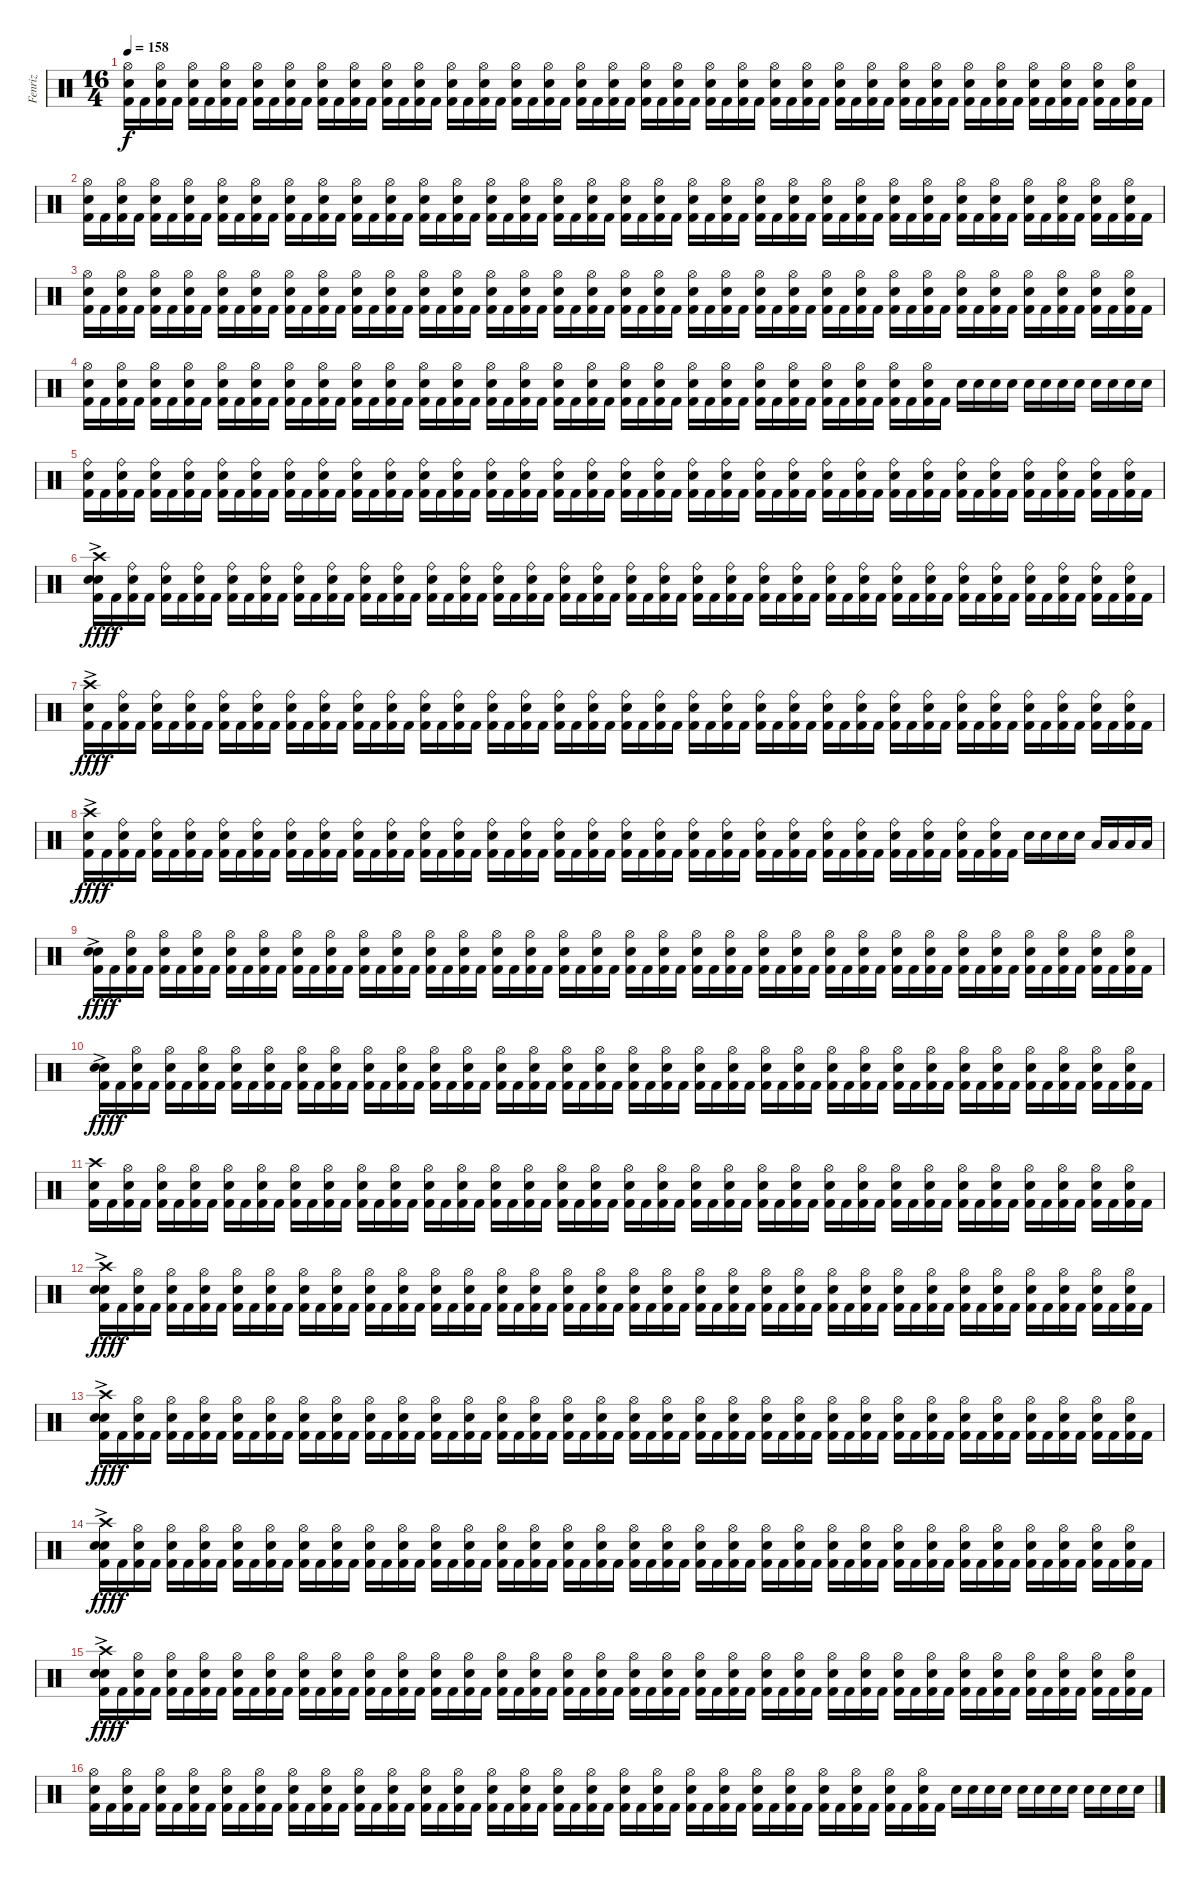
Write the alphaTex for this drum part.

\track ("Fenriz" "Fenriz") {instrument percussion}
\staff {score}
\articulation defaults
\ts (16 4)
\tempo 158
\clef neutral
\ks c
("Hi-Hat (open)" "Snare (hit) 2" "Kick (hit) 2").16{dy f} "Kick (hit) 2".16 ("Hi-Hat (open)" "Snare (hit) 2" "Kick (hit) 2").16 "Kick (hit) 2".16 ("Hi-Hat (open)" "Snare (hit) 2" "Kick (hit) 2").16 "Kick (hit) 2".16 ("Hi-Hat (open)" "Snare (hit) 2" "Kick (hit) 2").16 "Kick (hit) 2".16 ("Hi-Hat (open)" "Snare (hit) 2" "Kick (hit) 2").16 "Kick (hit) 2".16 ("Hi-Hat (open)" "Snare (hit) 2" "Kick (hit) 2").16 "Kick (hit) 2".16 ("Hi-Hat (open)" "Snare (hit) 2" "Kick (hit) 2").16 "Kick (hit) 2".16 ("Hi-Hat (open)" "Snare (hit) 2" "Kick (hit) 2").16 "Kick (hit) 2".16 ("Hi-Hat (open)" "Snare (hit) 2" "Kick (hit) 2").16 "Kick (hit) 2".16 ("Hi-Hat (open)" "Snare (hit) 2" "Kick (hit) 2").16 "Kick (hit) 2".16 ("Hi-Hat (open)" "Snare (hit) 2" "Kick (hit) 2").16 "Kick (hit) 2".16 ("Hi-Hat (open)" "Snare (hit) 2" "Kick (hit) 2").16 "Kick (hit) 2".16 ("Hi-Hat (open)" "Snare (hit) 2" "Kick (hit) 2").16 "Kick (hit) 2".16 ("Hi-Hat (open)" "Snare (hit) 2" "Kick (hit) 2").16 "Kick (hit) 2".16 ("Hi-Hat (open)" "Snare (hit) 2" "Kick (hit) 2").16 "Kick (hit) 2".16 ("Hi-Hat (open)" "Snare (hit) 2" "Kick (hit) 2").16 "Kick (hit) 2".16 ("Hi-Hat (open)" "Snare (hit) 2" "Kick (hit) 2").16 "Kick (hit) 2".16 ("Hi-Hat (open)" "Snare (hit) 2" "Kick (hit) 2").16 "Kick (hit) 2".16 ("Hi-Hat (open)" "Snare (hit) 2" "Kick (hit) 2").16 "Kick (hit) 2".16 ("Hi-Hat (open)" "Snare (hit) 2" "Kick (hit) 2").16 "Kick (hit) 2".16 ("Hi-Hat (open)" "Snare (hit) 2" "Kick (hit) 2").16 "Kick (hit) 2".16 ("Hi-Hat (open)" "Snare (hit) 2" "Kick (hit) 2").16 "Kick (hit) 2".16 ("Hi-Hat (open)" "Snare (hit) 2" "Kick (hit) 2").16 "Kick (hit) 2".16 ("Hi-Hat (open)" "Snare (hit) 2" "Kick (hit) 2").16 "Kick (hit) 2".16 ("Hi-Hat (open)" "Snare (hit) 2" "Kick (hit) 2").16 "Kick (hit) 2".16 ("Hi-Hat (open)" "Snare (hit) 2" "Kick (hit) 2").16 "Kick (hit) 2".16 ("Hi-Hat (open)" "Snare (hit) 2" "Kick (hit) 2").16 "Kick (hit) 2".16 ("Hi-Hat (open)" "Snare (hit) 2" "Kick (hit) 2").16 "Kick (hit) 2".16 ("Hi-Hat (open)" "Snare (hit) 2" "Kick (hit) 2").16 "Kick (hit) 2".16 ("Hi-Hat (open)" "Snare (hit) 2" "Kick (hit) 2").16 "Kick (hit) 2".16 ("Hi-Hat (open)" "Snare (hit) 2" "Kick (hit) 2").16 "Kick (hit) 2".16 ("Hi-Hat (open)" "Snare (hit) 2" "Kick (hit) 2").16 "Kick (hit) 2".16 |
("Hi-Hat (open)" "Snare (hit) 2" "Kick (hit) 2").16 "Kick (hit) 2".16 ("Hi-Hat (open)" "Snare (hit) 2" "Kick (hit) 2").16 "Kick (hit) 2".16 ("Hi-Hat (open)" "Snare (hit) 2" "Kick (hit) 2").16 "Kick (hit) 2".16 ("Hi-Hat (open)" "Snare (hit) 2" "Kick (hit) 2").16 "Kick (hit) 2".16 ("Hi-Hat (open)" "Snare (hit) 2" "Kick (hit) 2").16 "Kick (hit) 2".16 ("Hi-Hat (open)" "Snare (hit) 2" "Kick (hit) 2").16 "Kick (hit) 2".16 ("Hi-Hat (open)" "Snare (hit) 2" "Kick (hit) 2").16 "Kick (hit) 2".16 ("Hi-Hat (open)" "Snare (hit) 2" "Kick (hit) 2").16 "Kick (hit) 2".16 ("Hi-Hat (open)" "Snare (hit) 2" "Kick (hit) 2").16 "Kick (hit) 2".16 ("Hi-Hat (open)" "Snare (hit) 2" "Kick (hit) 2").16 "Kick (hit) 2".16 ("Hi-Hat (open)" "Snare (hit) 2" "Kick (hit) 2").16 "Kick (hit) 2".16 ("Hi-Hat (open)" "Snare (hit) 2" "Kick (hit) 2").16 "Kick (hit) 2".16 ("Hi-Hat (open)" "Snare (hit) 2" "Kick (hit) 2").16 "Kick (hit) 2".16 ("Hi-Hat (open)" "Snare (hit) 2" "Kick (hit) 2").16 "Kick (hit) 2".16 ("Hi-Hat (open)" "Snare (hit) 2" "Kick (hit) 2").16 "Kick (hit) 2".16 ("Hi-Hat (open)" "Snare (hit) 2" "Kick (hit) 2").16 "Kick (hit) 2".16 ("Hi-Hat (open)" "Snare (hit) 2" "Kick (hit) 2").16 "Kick (hit) 2".16 ("Hi-Hat (open)" "Snare (hit) 2" "Kick (hit) 2").16 "Kick (hit) 2".16 ("Hi-Hat (open)" "Snare (hit) 2" "Kick (hit) 2").16 "Kick (hit) 2".16 ("Hi-Hat (open)" "Snare (hit) 2" "Kick (hit) 2").16 "Kick (hit) 2".16 ("Hi-Hat (open)" "Snare (hit) 2" "Kick (hit) 2").16 "Kick (hit) 2".16 ("Hi-Hat (open)" "Snare (hit) 2" "Kick (hit) 2").16 "Kick (hit) 2".16 ("Hi-Hat (open)" "Snare (hit) 2" "Kick (hit) 2").16 "Kick (hit) 2".16 ("Hi-Hat (open)" "Snare (hit) 2" "Kick (hit) 2").16 "Kick (hit) 2".16 ("Hi-Hat (open)" "Snare (hit) 2" "Kick (hit) 2").16 "Kick (hit) 2".16 ("Hi-Hat (open)" "Snare (hit) 2" "Kick (hit) 2").16 "Kick (hit) 2".16 ("Hi-Hat (open)" "Snare (hit) 2" "Kick (hit) 2").16 "Kick (hit) 2".16 ("Hi-Hat (open)" "Snare (hit) 2" "Kick (hit) 2").16 "Kick (hit) 2".16 ("Hi-Hat (open)" "Snare (hit) 2" "Kick (hit) 2").16 "Kick (hit) 2".16 ("Hi-Hat (open)" "Snare (hit) 2" "Kick (hit) 2").16 "Kick (hit) 2".16 ("Hi-Hat (open)" "Snare (hit) 2" "Kick (hit) 2").16 "Kick (hit) 2".16 ("Hi-Hat (open)" "Snare (hit) 2" "Kick (hit) 2").16 "Kick (hit) 2".16 |
("Hi-Hat (open)" "Snare (hit) 2" "Kick (hit) 2").16 "Kick (hit) 2".16 ("Hi-Hat (open)" "Snare (hit) 2" "Kick (hit) 2").16 "Kick (hit) 2".16 ("Hi-Hat (open)" "Snare (hit) 2" "Kick (hit) 2").16 "Kick (hit) 2".16 ("Hi-Hat (open)" "Snare (hit) 2" "Kick (hit) 2").16 "Kick (hit) 2".16 ("Hi-Hat (open)" "Snare (hit) 2" "Kick (hit) 2").16 "Kick (hit) 2".16 ("Hi-Hat (open)" "Snare (hit) 2" "Kick (hit) 2").16 "Kick (hit) 2".16 ("Hi-Hat (open)" "Snare (hit) 2" "Kick (hit) 2").16 "Kick (hit) 2".16 ("Hi-Hat (open)" "Snare (hit) 2" "Kick (hit) 2").16 "Kick (hit) 2".16 ("Hi-Hat (open)" "Snare (hit) 2" "Kick (hit) 2").16 "Kick (hit) 2".16 ("Hi-Hat (open)" "Snare (hit) 2" "Kick (hit) 2").16 "Kick (hit) 2".16 ("Hi-Hat (open)" "Snare (hit) 2" "Kick (hit) 2").16 "Kick (hit) 2".16 ("Hi-Hat (open)" "Snare (hit) 2" "Kick (hit) 2").16 "Kick (hit) 2".16 ("Hi-Hat (open)" "Snare (hit) 2" "Kick (hit) 2").16 "Kick (hit) 2".16 ("Hi-Hat (open)" "Snare (hit) 2" "Kick (hit) 2").16 "Kick (hit) 2".16 ("Hi-Hat (open)" "Snare (hit) 2" "Kick (hit) 2").16 "Kick (hit) 2".16 ("Hi-Hat (open)" "Snare (hit) 2" "Kick (hit) 2").16 "Kick (hit) 2".16 ("Hi-Hat (open)" "Snare (hit) 2" "Kick (hit) 2").16 "Kick (hit) 2".16 ("Hi-Hat (open)" "Snare (hit) 2" "Kick (hit) 2").16 "Kick (hit) 2".16 ("Hi-Hat (open)" "Snare (hit) 2" "Kick (hit) 2").16 "Kick (hit) 2".16 ("Hi-Hat (open)" "Snare (hit) 2" "Kick (hit) 2").16 "Kick (hit) 2".16 ("Hi-Hat (open)" "Snare (hit) 2" "Kick (hit) 2").16 "Kick (hit) 2".16 ("Hi-Hat (open)" "Snare (hit) 2" "Kick (hit) 2").16 "Kick (hit) 2".16 ("Hi-Hat (open)" "Snare (hit) 2" "Kick (hit) 2").16 "Kick (hit) 2".16 ("Hi-Hat (open)" "Snare (hit) 2" "Kick (hit) 2").16 "Kick (hit) 2".16 ("Hi-Hat (open)" "Snare (hit) 2" "Kick (hit) 2").16 "Kick (hit) 2".16 ("Hi-Hat (open)" "Snare (hit) 2" "Kick (hit) 2").16 "Kick (hit) 2".16 ("Hi-Hat (open)" "Snare (hit) 2" "Kick (hit) 2").16 "Kick (hit) 2".16 ("Hi-Hat (open)" "Snare (hit) 2" "Kick (hit) 2").16 "Kick (hit) 2".16 ("Hi-Hat (open)" "Snare (hit) 2" "Kick (hit) 2").16 "Kick (hit) 2".16 ("Hi-Hat (open)" "Snare (hit) 2" "Kick (hit) 2").16 "Kick (hit) 2".16 ("Hi-Hat (open)" "Snare (hit) 2" "Kick (hit) 2").16 "Kick (hit) 2".16 ("Hi-Hat (open)" "Snare (hit) 2" "Kick (hit) 2").16 "Kick (hit) 2".16 |
("Hi-Hat (open)" "Snare (hit) 2" "Kick (hit) 2").16 "Kick (hit) 2".16 ("Hi-Hat (open)" "Snare (hit) 2" "Kick (hit) 2").16 "Kick (hit) 2".16 ("Hi-Hat (open)" "Snare (hit) 2" "Kick (hit) 2").16 "Kick (hit) 2".16 ("Hi-Hat (open)" "Snare (hit) 2" "Kick (hit) 2").16 "Kick (hit) 2".16 ("Hi-Hat (open)" "Snare (hit) 2" "Kick (hit) 2").16 "Kick (hit) 2".16 ("Hi-Hat (open)" "Snare (hit) 2" "Kick (hit) 2").16 "Kick (hit) 2".16 ("Hi-Hat (open)" "Snare (hit) 2" "Kick (hit) 2").16 "Kick (hit) 2".16 ("Hi-Hat (open)" "Snare (hit) 2" "Kick (hit) 2").16 "Kick (hit) 2".16 ("Hi-Hat (open)" "Snare (hit) 2" "Kick (hit) 2").16 "Kick (hit) 2".16 ("Hi-Hat (open)" "Snare (hit) 2" "Kick (hit) 2").16 "Kick (hit) 2".16 ("Hi-Hat (open)" "Snare (hit) 2" "Kick (hit) 2").16 "Kick (hit) 2".16 ("Hi-Hat (open)" "Snare (hit) 2" "Kick (hit) 2").16 "Kick (hit) 2".16 ("Hi-Hat (open)" "Snare (hit) 2" "Kick (hit) 2").16 "Kick (hit) 2".16 ("Hi-Hat (open)" "Snare (hit) 2" "Kick (hit) 2").16 "Kick (hit) 2".16 ("Hi-Hat (open)" "Snare (hit) 2" "Kick (hit) 2").16 "Kick (hit) 2".16 ("Hi-Hat (open)" "Snare (hit) 2" "Kick (hit) 2").16 "Kick (hit) 2".16 ("Hi-Hat (open)" "Snare (hit) 2" "Kick (hit) 2").16 "Kick (hit) 2".16 ("Hi-Hat (open)" "Snare (hit) 2" "Kick (hit) 2").16 "Kick (hit) 2".16 ("Hi-Hat (open)" "Snare (hit) 2" "Kick (hit) 2").16 "Kick (hit) 2".16 ("Hi-Hat (open)" "Snare (hit) 2" "Kick (hit) 2").16 "Kick (hit) 2".16 ("Hi-Hat (open)" "Snare (hit) 2" "Kick (hit) 2").16 "Kick (hit) 2".16 ("Hi-Hat (open)" "Snare (hit) 2" "Kick (hit) 2").16 "Kick (hit) 2".16 ("Hi-Hat (open)" "Snare (hit) 2" "Kick (hit) 2").16 "Kick (hit) 2".16 ("Hi-Hat (open)" "Snare (hit) 2" "Kick (hit) 2").16 "Kick (hit) 2".16 ("Hi-Hat (open)" "Snare (hit) 2" "Kick (hit) 2").16 "Kick (hit) 2".16 ("Hi-Hat (open)" "Snare (hit) 2" "Kick (hit) 2").16 "Kick (hit) 2".16 "Snare (hit) 2".16 "Snare (hit) 2".16 "Snare (hit) 2".16 "Snare (hit) 2".16 "Snare (hit) 2".16 "Snare (hit) 2".16 "Snare (hit) 2".16 "Snare (hit) 2".16 "Snare (hit) 2".16 "Snare (hit) 2".16 "Snare (hit) 2".16 "Snare (hit) 2".16 |
("Ride (bell)" "Snare (hit) 2" "Kick (hit) 2").16 "Kick (hit) 2".16 ("Ride (bell)" "Snare (hit) 2" "Kick (hit) 2").16 "Kick (hit) 2".16 ("Ride (bell)" "Snare (hit) 2" "Kick (hit) 2").16 "Kick (hit) 2".16 ("Ride (bell)" "Snare (hit) 2" "Kick (hit) 2").16 "Kick (hit) 2".16 ("Ride (bell)" "Snare (hit) 2" "Kick (hit) 2").16 "Kick (hit) 2".16 ("Ride (bell)" "Snare (hit) 2" "Kick (hit) 2").16 "Kick (hit) 2".16 ("Ride (bell)" "Snare (hit) 2" "Kick (hit) 2").16 "Kick (hit) 2".16 ("Ride (bell)" "Snare (hit) 2" "Kick (hit) 2").16 "Kick (hit) 2".16 ("Ride (bell)" "Snare (hit) 2" "Kick (hit) 2").16 "Kick (hit) 2".16 ("Ride (bell)" "Snare (hit) 2" "Kick (hit) 2").16 "Kick (hit) 2".16 ("Ride (bell)" "Snare (hit) 2" "Kick (hit) 2").16 "Kick (hit) 2".16 ("Ride (bell)" "Snare (hit) 2" "Kick (hit) 2").16 "Kick (hit) 2".16 ("Ride (bell)" "Snare (hit) 2" "Kick (hit) 2").16 "Kick (hit) 2".16 ("Ride (bell)" "Snare (hit) 2" "Kick (hit) 2").16 "Kick (hit) 2".16 ("Ride (bell)" "Snare (hit) 2" "Kick (hit) 2").16 "Kick (hit) 2".16 ("Ride (bell)" "Snare (hit) 2" "Kick (hit) 2").16 "Kick (hit) 2".16 ("Ride (bell)" "Snare (hit) 2" "Kick (hit) 2").16 "Kick (hit) 2".16 ("Ride (bell)" "Snare (hit) 2" "Kick (hit) 2").16 "Kick (hit) 2".16 ("Ride (bell)" "Snare (hit) 2" "Kick (hit) 2").16 "Kick (hit) 2".16 ("Ride (bell)" "Snare (hit) 2" "Kick (hit) 2").16 "Kick (hit) 2".16 ("Ride (bell)" "Snare (hit) 2" "Kick (hit) 2").16 "Kick (hit) 2".16 ("Ride (bell)" "Snare (hit) 2" "Kick (hit) 2").16 "Kick (hit) 2".16 ("Ride (bell)" "Snare (hit) 2" "Kick (hit) 2").16 "Kick (hit) 2".16 ("Ride (bell)" "Snare (hit) 2" "Kick (hit) 2").16 "Kick (hit) 2".16 ("Ride (bell)" "Snare (hit) 2" "Kick (hit) 2").16 "Kick (hit) 2".16 ("Ride (bell)" "Snare (hit) 2" "Kick (hit) 2").16 "Kick (hit) 2".16 ("Ride (bell)" "Snare (hit) 2" "Kick (hit) 2").16 "Kick (hit) 2".16 ("Ride (bell)" "Snare (hit) 2" "Kick (hit) 2").16 "Kick (hit) 2".16 ("Ride (bell)" "Snare (hit) 2" "Kick (hit) 2").16 "Kick (hit) 2".16 ("Ride (bell)" "Snare (hit) 2" "Kick (hit) 2").16 "Kick (hit) 2".16 ("Ride (bell)" "Snare (hit) 2" "Kick (hit) 2").16 "Kick (hit) 2".16 ("Ride (bell)" "Snare (hit) 2" "Kick (hit) 2").16 "Kick (hit) 2".16 |
("Crash high (hit)"{ac} "Snare (hit) 2"{ac} "Snare (hit) 2"{ac} "Kick (hit) 2").16{dy fff} "Kick (hit) 2".16{dy f} ("Ride (bell)" "Snare (hit) 2" "Kick (hit) 2").16 "Kick (hit) 2".16 ("Ride (bell)" "Snare (hit) 2" "Kick (hit) 2").16 "Kick (hit) 2".16 ("Ride (bell)" "Snare (hit) 2" "Kick (hit) 2").16 "Kick (hit) 2".16 ("Ride (bell)" "Snare (hit) 2" "Kick (hit) 2").16 "Kick (hit) 2".16 ("Ride (bell)" "Snare (hit) 2" "Kick (hit) 2").16 "Kick (hit) 2".16 ("Ride (bell)" "Snare (hit) 2" "Kick (hit) 2").16 "Kick (hit) 2".16 ("Ride (bell)" "Snare (hit) 2" "Kick (hit) 2").16 "Kick (hit) 2".16 ("Ride (bell)" "Snare (hit) 2" "Kick (hit) 2").16 "Kick (hit) 2".16 ("Ride (bell)" "Snare (hit) 2" "Kick (hit) 2").16 "Kick (hit) 2".16 ("Ride (bell)" "Snare (hit) 2" "Kick (hit) 2").16 "Kick (hit) 2".16 ("Ride (bell)" "Snare (hit) 2" "Kick (hit) 2").16 "Kick (hit) 2".16 ("Ride (bell)" "Snare (hit) 2" "Kick (hit) 2").16 "Kick (hit) 2".16 ("Ride (bell)" "Snare (hit) 2" "Kick (hit) 2").16 "Kick (hit) 2".16 ("Ride (bell)" "Snare (hit) 2" "Kick (hit) 2").16 "Kick (hit) 2".16 ("Ride (bell)" "Snare (hit) 2" "Kick (hit) 2").16 "Kick (hit) 2".16 ("Ride (bell)" "Snare (hit) 2" "Kick (hit) 2").16 "Kick (hit) 2".16 ("Ride (bell)" "Snare (hit) 2" "Kick (hit) 2").16 "Kick (hit) 2".16 ("Ride (bell)" "Snare (hit) 2" "Kick (hit) 2").16 "Kick (hit) 2".16 ("Ride (bell)" "Snare (hit) 2" "Kick (hit) 2").16 "Kick (hit) 2".16 ("Ride (bell)" "Snare (hit) 2" "Kick (hit) 2").16 "Kick (hit) 2".16 ("Ride (bell)" "Snare (hit) 2" "Kick (hit) 2").16 "Kick (hit) 2".16 ("Ride (bell)" "Snare (hit) 2" "Kick (hit) 2").16 "Kick (hit) 2".16 ("Ride (bell)" "Snare (hit) 2" "Kick (hit) 2").16 "Kick (hit) 2".16 ("Ride (bell)" "Snare (hit) 2" "Kick (hit) 2").16 "Kick (hit) 2".16 ("Ride (bell)" "Snare (hit) 2" "Kick (hit) 2").16 "Kick (hit) 2".16 ("Ride (bell)" "Snare (hit) 2" "Kick (hit) 2").16 "Kick (hit) 2".16 ("Ride (bell)" "Snare (hit) 2" "Kick (hit) 2").16 "Kick (hit) 2".16 ("Ride (bell)" "Snare (hit) 2" "Kick (hit) 2").16 "Kick (hit) 2".16 ("Ride (bell)" "Snare (hit) 2" "Kick (hit) 2").16 "Kick (hit) 2".16 ("Ride (bell)" "Snare (hit) 2" "Kick (hit) 2").16 "Kick (hit) 2".16 ("Ride (bell)" "Snare (hit) 2" "Kick (hit) 2").16 "Kick (hit) 2".16 |
("Crash high (hit)"{ac} "Snare (hit) 2"{ac} "Kick (hit) 2").16{dy fff} "Kick (hit) 2".16{dy f} ("Ride (bell)" "Snare (hit) 2" "Kick (hit) 2").16 "Kick (hit) 2".16 ("Ride (bell)" "Snare (hit) 2" "Kick (hit) 2").16 "Kick (hit) 2".16 ("Ride (bell)" "Snare (hit) 2" "Kick (hit) 2").16 "Kick (hit) 2".16 ("Ride (bell)" "Snare (hit) 2" "Kick (hit) 2").16 "Kick (hit) 2".16 ("Ride (bell)" "Snare (hit) 2" "Kick (hit) 2").16 "Kick (hit) 2".16 ("Ride (bell)" "Snare (hit) 2" "Kick (hit) 2").16 "Kick (hit) 2".16 ("Ride (bell)" "Snare (hit) 2" "Kick (hit) 2").16 "Kick (hit) 2".16 ("Ride (bell)" "Snare (hit) 2" "Kick (hit) 2").16 "Kick (hit) 2".16 ("Ride (bell)" "Snare (hit) 2" "Kick (hit) 2").16 "Kick (hit) 2".16 ("Ride (bell)" "Snare (hit) 2" "Kick (hit) 2").16 "Kick (hit) 2".16 ("Ride (bell)" "Snare (hit) 2" "Kick (hit) 2").16 "Kick (hit) 2".16 ("Ride (bell)" "Snare (hit) 2" "Kick (hit) 2").16 "Kick (hit) 2".16 ("Ride (bell)" "Snare (hit) 2" "Kick (hit) 2").16 "Kick (hit) 2".16 ("Ride (bell)" "Snare (hit) 2" "Kick (hit) 2").16 "Kick (hit) 2".16 ("Ride (bell)" "Snare (hit) 2" "Kick (hit) 2").16 "Kick (hit) 2".16 ("Ride (bell)" "Snare (hit) 2" "Kick (hit) 2").16 "Kick (hit) 2".16 ("Ride (bell)" "Snare (hit) 2" "Kick (hit) 2").16 "Kick (hit) 2".16 ("Ride (bell)" "Snare (hit) 2" "Kick (hit) 2").16 "Kick (hit) 2".16 ("Ride (bell)" "Snare (hit) 2" "Kick (hit) 2").16 "Kick (hit) 2".16 ("Ride (bell)" "Snare (hit) 2" "Kick (hit) 2").16 "Kick (hit) 2".16 ("Ride (bell)" "Snare (hit) 2" "Kick (hit) 2").16 "Kick (hit) 2".16 ("Ride (bell)" "Snare (hit) 2" "Kick (hit) 2").16 "Kick (hit) 2".16 ("Ride (bell)" "Snare (hit) 2" "Kick (hit) 2").16 "Kick (hit) 2".16 ("Ride (bell)" "Snare (hit) 2" "Kick (hit) 2").16 "Kick (hit) 2".16 ("Ride (bell)" "Snare (hit) 2" "Kick (hit) 2").16 "Kick (hit) 2".16 ("Ride (bell)" "Snare (hit) 2" "Kick (hit) 2").16 "Kick (hit) 2".16 ("Ride (bell)" "Snare (hit) 2" "Kick (hit) 2").16 "Kick (hit) 2".16 ("Ride (bell)" "Snare (hit) 2" "Kick (hit) 2").16 "Kick (hit) 2".16 ("Ride (bell)" "Snare (hit) 2" "Kick (hit) 2").16 "Kick (hit) 2".16 ("Ride (bell)" "Snare (hit) 2" "Kick (hit) 2").16 "Kick (hit) 2".16 ("Ride (bell)" "Snare (hit) 2" "Kick (hit) 2").16 "Kick (hit) 2".16 |
("Crash high (hit)"{ac} "Snare (hit) 2" "Kick (hit) 2").16{dy fff} "Kick (hit) 2".16{dy f} ("Ride (bell)" "Snare (hit) 2" "Kick (hit) 2").16 "Kick (hit) 2".16 ("Ride (bell)" "Snare (hit) 2" "Kick (hit) 2").16 "Kick (hit) 2".16 ("Ride (bell)" "Snare (hit) 2" "Kick (hit) 2").16 "Kick (hit) 2".16 ("Ride (bell)" "Snare (hit) 2" "Kick (hit) 2").16 "Kick (hit) 2".16 ("Ride (bell)" "Snare (hit) 2" "Kick (hit) 2").16 "Kick (hit) 2".16 ("Ride (bell)" "Snare (hit) 2" "Kick (hit) 2").16 "Kick (hit) 2".16 ("Ride (bell)" "Snare (hit) 2" "Kick (hit) 2").16 "Kick (hit) 2".16 ("Ride (bell)" "Snare (hit) 2" "Kick (hit) 2").16 "Kick (hit) 2".16 ("Ride (bell)" "Snare (hit) 2" "Kick (hit) 2").16 "Kick (hit) 2".16 ("Ride (bell)" "Snare (hit) 2" "Kick (hit) 2").16 "Kick (hit) 2".16 ("Ride (bell)" "Snare (hit) 2" "Kick (hit) 2").16 "Kick (hit) 2".16 ("Ride (bell)" "Snare (hit) 2" "Kick (hit) 2").16 "Kick (hit) 2".16 ("Ride (bell)" "Snare (hit) 2" "Kick (hit) 2").16 "Kick (hit) 2".16 ("Ride (bell)" "Snare (hit) 2" "Kick (hit) 2").16 "Kick (hit) 2".16 ("Ride (bell)" "Snare (hit) 2" "Kick (hit) 2").16 "Kick (hit) 2".16 ("Ride (bell)" "Snare (hit) 2" "Kick (hit) 2").16 "Kick (hit) 2".16 ("Ride (bell)" "Snare (hit) 2" "Kick (hit) 2").16 "Kick (hit) 2".16 ("Ride (bell)" "Snare (hit) 2" "Kick (hit) 2").16 "Kick (hit) 2".16 ("Ride (bell)" "Snare (hit) 2" "Kick (hit) 2").16 "Kick (hit) 2".16 ("Ride (bell)" "Snare (hit) 2" "Kick (hit) 2").16 "Kick (hit) 2".16 ("Ride (bell)" "Snare (hit) 2" "Kick (hit) 2").16 "Kick (hit) 2".16 ("Ride (bell)" "Snare (hit) 2" "Kick (hit) 2").16 "Kick (hit) 2".16 ("Ride (bell)" "Snare (hit) 2" "Kick (hit) 2").16 "Kick (hit) 2".16 ("Ride (bell)" "Snare (hit) 2" "Kick (hit) 2").16 "Kick (hit) 2".16 ("Ride (bell)" "Snare (hit) 2" "Kick (hit) 2").16 "Kick (hit) 2".16 ("Ride (bell)" "Snare (hit) 2" "Kick (hit) 2").16 "Kick (hit) 2".16 ("Ride (bell)" "Snare (hit) 2" "Kick (hit) 2").16 "Kick (hit) 2".16 "Snare (hit) 2".16 "Snare (hit) 2".16 "Snare (hit) 2".16 "Snare (hit) 2".16 "Low Floor Tom (hit)".16 "Low Floor Tom (hit)".16 "Low Floor Tom (hit)".16 "Low Floor Tom (hit)".16 |
("Snare (hit) 2"{ac} "Snare (hit) 2"{ac} "Kick (hit) 2").16{dy fff} "Kick (hit) 2".16{dy f} ("Hi-Hat (open)" "Snare (hit) 2" "Kick (hit) 2").16 "Kick (hit) 2".16 ("Hi-Hat (open)" "Snare (hit) 2" "Kick (hit) 2").16 "Kick (hit) 2".16 ("Hi-Hat (open)" "Snare (hit) 2" "Kick (hit) 2").16 "Kick (hit) 2".16 ("Hi-Hat (open)" "Snare (hit) 2" "Kick (hit) 2").16 "Kick (hit) 2".16 ("Hi-Hat (open)" "Snare (hit) 2" "Kick (hit) 2").16 "Kick (hit) 2".16 ("Hi-Hat (open)" "Snare (hit) 2" "Kick (hit) 2").16 "Kick (hit) 2".16 ("Hi-Hat (open)" "Snare (hit) 2" "Kick (hit) 2").16 "Kick (hit) 2".16 ("Hi-Hat (open)" "Snare (hit) 2" "Kick (hit) 2").16 "Kick (hit) 2".16 ("Hi-Hat (open)" "Snare (hit) 2" "Kick (hit) 2").16 "Kick (hit) 2".16 ("Hi-Hat (open)" "Snare (hit) 2" "Kick (hit) 2").16 "Kick (hit) 2".16 ("Hi-Hat (open)" "Snare (hit) 2" "Kick (hit) 2").16 "Kick (hit) 2".16 ("Hi-Hat (open)" "Snare (hit) 2" "Kick (hit) 2").16 "Kick (hit) 2".16 ("Hi-Hat (open)" "Snare (hit) 2" "Kick (hit) 2").16 "Kick (hit) 2".16 ("Hi-Hat (open)" "Snare (hit) 2" "Kick (hit) 2").16 "Kick (hit) 2".16 ("Hi-Hat (open)" "Snare (hit) 2" "Kick (hit) 2").16 "Kick (hit) 2".16 ("Hi-Hat (open)" "Snare (hit) 2" "Kick (hit) 2").16 "Kick (hit) 2".16 ("Hi-Hat (open)" "Snare (hit) 2" "Kick (hit) 2").16 "Kick (hit) 2".16 ("Hi-Hat (open)" "Snare (hit) 2" "Kick (hit) 2").16 "Kick (hit) 2".16 ("Hi-Hat (open)" "Snare (hit) 2" "Kick (hit) 2").16 "Kick (hit) 2".16 ("Hi-Hat (open)" "Snare (hit) 2" "Kick (hit) 2").16 "Kick (hit) 2".16 ("Hi-Hat (open)" "Snare (hit) 2" "Kick (hit) 2").16 "Kick (hit) 2".16 ("Hi-Hat (open)" "Snare (hit) 2" "Kick (hit) 2").16 "Kick (hit) 2".16 ("Hi-Hat (open)" "Snare (hit) 2" "Kick (hit) 2").16 "Kick (hit) 2".16 ("Hi-Hat (open)" "Snare (hit) 2" "Kick (hit) 2").16 "Kick (hit) 2".16 ("Hi-Hat (open)" "Snare (hit) 2" "Kick (hit) 2").16 "Kick (hit) 2".16 ("Hi-Hat (open)" "Snare (hit) 2" "Kick (hit) 2").16 "Kick (hit) 2".16 ("Hi-Hat (open)" "Snare (hit) 2" "Kick (hit) 2").16 "Kick (hit) 2".16 ("Hi-Hat (open)" "Snare (hit) 2" "Kick (hit) 2").16 "Kick (hit) 2".16 ("Hi-Hat (open)" "Snare (hit) 2" "Kick (hit) 2").16 "Kick (hit) 2".16 ("Hi-Hat (open)" "Snare (hit) 2" "Kick (hit) 2").16 "Kick (hit) 2".16 ("Hi-Hat (open)" "Snare (hit) 2" "Kick (hit) 2").16 "Kick (hit) 2".16 |
("Snare (hit) 2"{ac} "Snare (hit) 2"{ac} "Kick (hit) 2").16{dy fff} "Kick (hit) 2".16{dy f} ("Hi-Hat (open)" "Snare (hit) 2" "Kick (hit) 2").16 "Kick (hit) 2".16 ("Hi-Hat (open)" "Snare (hit) 2" "Kick (hit) 2").16 "Kick (hit) 2".16 ("Hi-Hat (open)" "Snare (hit) 2" "Kick (hit) 2").16 "Kick (hit) 2".16 ("Hi-Hat (open)" "Snare (hit) 2" "Kick (hit) 2").16 "Kick (hit) 2".16 ("Hi-Hat (open)" "Snare (hit) 2" "Kick (hit) 2").16 "Kick (hit) 2".16 ("Hi-Hat (open)" "Snare (hit) 2" "Kick (hit) 2").16 "Kick (hit) 2".16 ("Hi-Hat (open)" "Snare (hit) 2" "Kick (hit) 2").16 "Kick (hit) 2".16 ("Hi-Hat (open)" "Snare (hit) 2" "Kick (hit) 2").16 "Kick (hit) 2".16 ("Hi-Hat (open)" "Snare (hit) 2" "Kick (hit) 2").16 "Kick (hit) 2".16 ("Hi-Hat (open)" "Snare (hit) 2" "Kick (hit) 2").16 "Kick (hit) 2".16 ("Hi-Hat (open)" "Snare (hit) 2" "Kick (hit) 2").16 "Kick (hit) 2".16 ("Hi-Hat (open)" "Snare (hit) 2" "Kick (hit) 2").16 "Kick (hit) 2".16 ("Hi-Hat (open)" "Snare (hit) 2" "Kick (hit) 2").16 "Kick (hit) 2".16 ("Hi-Hat (open)" "Snare (hit) 2" "Kick (hit) 2").16 "Kick (hit) 2".16 ("Hi-Hat (open)" "Snare (hit) 2" "Kick (hit) 2").16 "Kick (hit) 2".16 ("Hi-Hat (open)" "Snare (hit) 2" "Kick (hit) 2").16 "Kick (hit) 2".16 ("Hi-Hat (open)" "Snare (hit) 2" "Kick (hit) 2").16 "Kick (hit) 2".16 ("Hi-Hat (open)" "Snare (hit) 2" "Kick (hit) 2").16 "Kick (hit) 2".16 ("Hi-Hat (open)" "Snare (hit) 2" "Kick (hit) 2").16 "Kick (hit) 2".16 ("Hi-Hat (open)" "Snare (hit) 2" "Kick (hit) 2").16 "Kick (hit) 2".16 ("Hi-Hat (open)" "Snare (hit) 2" "Kick (hit) 2").16 "Kick (hit) 2".16 ("Hi-Hat (open)" "Snare (hit) 2" "Kick (hit) 2").16 "Kick (hit) 2".16 ("Hi-Hat (open)" "Snare (hit) 2" "Kick (hit) 2").16 "Kick (hit) 2".16 ("Hi-Hat (open)" "Snare (hit) 2" "Kick (hit) 2").16 "Kick (hit) 2".16 ("Hi-Hat (open)" "Snare (hit) 2" "Kick (hit) 2").16 "Kick (hit) 2".16 ("Hi-Hat (open)" "Snare (hit) 2" "Kick (hit) 2").16 "Kick (hit) 2".16 ("Hi-Hat (open)" "Snare (hit) 2" "Kick (hit) 2").16 "Kick (hit) 2".16 ("Hi-Hat (open)" "Snare (hit) 2" "Kick (hit) 2").16 "Kick (hit) 2".16 ("Hi-Hat (open)" "Snare (hit) 2" "Kick (hit) 2").16 "Kick (hit) 2".16 ("Hi-Hat (open)" "Snare (hit) 2" "Kick (hit) 2").16 "Kick (hit) 2".16 ("Hi-Hat (open)" "Snare (hit) 2" "Kick (hit) 2").16 "Kick (hit) 2".16 |
("Crash high (hit)" "Snare (hit) 2" "Kick (hit) 2").16 "Kick (hit) 2".16 ("Hi-Hat (open)" "Snare (hit) 2" "Kick (hit) 2").16 "Kick (hit) 2".16 ("Hi-Hat (open)" "Snare (hit) 2" "Kick (hit) 2").16 "Kick (hit) 2".16 ("Hi-Hat (open)" "Snare (hit) 2" "Kick (hit) 2").16 "Kick (hit) 2".16 ("Hi-Hat (open)" "Snare (hit) 2" "Kick (hit) 2").16 "Kick (hit) 2".16 ("Hi-Hat (open)" "Snare (hit) 2" "Kick (hit) 2").16 "Kick (hit) 2".16 ("Hi-Hat (open)" "Snare (hit) 2" "Kick (hit) 2").16 "Kick (hit) 2".16 ("Hi-Hat (open)" "Snare (hit) 2" "Kick (hit) 2").16 "Kick (hit) 2".16 ("Hi-Hat (open)" "Snare (hit) 2" "Kick (hit) 2").16 "Kick (hit) 2".16 ("Hi-Hat (open)" "Snare (hit) 2" "Kick (hit) 2").16 "Kick (hit) 2".16 ("Hi-Hat (open)" "Snare (hit) 2" "Kick (hit) 2").16 "Kick (hit) 2".16 ("Hi-Hat (open)" "Snare (hit) 2" "Kick (hit) 2").16 "Kick (hit) 2".16 ("Hi-Hat (open)" "Snare (hit) 2" "Kick (hit) 2").16 "Kick (hit) 2".16 ("Hi-Hat (open)" "Snare (hit) 2" "Kick (hit) 2").16 "Kick (hit) 2".16 ("Hi-Hat (open)" "Snare (hit) 2" "Kick (hit) 2").16 "Kick (hit) 2".16 ("Hi-Hat (open)" "Snare (hit) 2" "Kick (hit) 2").16 "Kick (hit) 2".16 ("Hi-Hat (open)" "Snare (hit) 2" "Kick (hit) 2").16 "Kick (hit) 2".16 ("Hi-Hat (open)" "Snare (hit) 2" "Kick (hit) 2").16 "Kick (hit) 2".16 ("Hi-Hat (open)" "Snare (hit) 2" "Kick (hit) 2").16 "Kick (hit) 2".16 ("Hi-Hat (open)" "Snare (hit) 2" "Kick (hit) 2").16 "Kick (hit) 2".16 ("Hi-Hat (open)" "Snare (hit) 2" "Kick (hit) 2").16 "Kick (hit) 2".16 ("Hi-Hat (open)" "Snare (hit) 2" "Kick (hit) 2").16 "Kick (hit) 2".16 ("Hi-Hat (open)" "Snare (hit) 2" "Kick (hit) 2").16 "Kick (hit) 2".16 ("Hi-Hat (open)" "Snare (hit) 2" "Kick (hit) 2").16 "Kick (hit) 2".16 ("Hi-Hat (open)" "Snare (hit) 2" "Kick (hit) 2").16 "Kick (hit) 2".16 ("Hi-Hat (open)" "Snare (hit) 2" "Kick (hit) 2").16 "Kick (hit) 2".16 ("Hi-Hat (open)" "Snare (hit) 2" "Kick (hit) 2").16 "Kick (hit) 2".16 ("Hi-Hat (open)" "Snare (hit) 2" "Kick (hit) 2").16 "Kick (hit) 2".16 ("Hi-Hat (open)" "Snare (hit) 2" "Kick (hit) 2").16 "Kick (hit) 2".16 ("Hi-Hat (open)" "Snare (hit) 2" "Kick (hit) 2").16 "Kick (hit) 2".16 ("Hi-Hat (open)" "Snare (hit) 2" "Kick (hit) 2").16 "Kick (hit) 2".16 ("Hi-Hat (open)" "Snare (hit) 2" "Kick (hit) 2").16 "Kick (hit) 2".16 |
("Crash high (hit)"{ac} "Snare (hit) 2" "Snare (hit) 2" "Kick (hit) 2").16{dy fff} "Kick (hit) 2".16{dy f} ("Hi-Hat (open)" "Snare (hit) 2" "Kick (hit) 2").16 "Kick (hit) 2".16 ("Hi-Hat (open)" "Snare (hit) 2" "Kick (hit) 2").16 "Kick (hit) 2".16 ("Hi-Hat (open)" "Snare (hit) 2" "Kick (hit) 2").16 "Kick (hit) 2".16 ("Hi-Hat (open)" "Snare (hit) 2" "Kick (hit) 2").16 "Kick (hit) 2".16 ("Hi-Hat (open)" "Snare (hit) 2" "Kick (hit) 2").16 "Kick (hit) 2".16 ("Hi-Hat (open)" "Snare (hit) 2" "Kick (hit) 2").16 "Kick (hit) 2".16 ("Hi-Hat (open)" "Snare (hit) 2" "Kick (hit) 2").16 "Kick (hit) 2".16 ("Hi-Hat (open)" "Snare (hit) 2" "Kick (hit) 2").16 "Kick (hit) 2".16 ("Hi-Hat (open)" "Snare (hit) 2" "Kick (hit) 2").16 "Kick (hit) 2".16 ("Hi-Hat (open)" "Snare (hit) 2" "Kick (hit) 2").16 "Kick (hit) 2".16 ("Hi-Hat (open)" "Snare (hit) 2" "Kick (hit) 2").16 "Kick (hit) 2".16 ("Hi-Hat (open)" "Snare (hit) 2" "Kick (hit) 2").16 "Kick (hit) 2".16 ("Hi-Hat (open)" "Snare (hit) 2" "Kick (hit) 2").16 "Kick (hit) 2".16 ("Hi-Hat (open)" "Snare (hit) 2" "Kick (hit) 2").16 "Kick (hit) 2".16 ("Hi-Hat (open)" "Snare (hit) 2" "Kick (hit) 2").16 "Kick (hit) 2".16 ("Hi-Hat (open)" "Snare (hit) 2" "Kick (hit) 2").16 "Kick (hit) 2".16 ("Hi-Hat (open)" "Snare (hit) 2" "Kick (hit) 2").16 "Kick (hit) 2".16 ("Hi-Hat (open)" "Snare (hit) 2" "Kick (hit) 2").16 "Kick (hit) 2".16 ("Hi-Hat (open)" "Snare (hit) 2" "Kick (hit) 2").16 "Kick (hit) 2".16 ("Hi-Hat (open)" "Snare (hit) 2" "Kick (hit) 2").16 "Kick (hit) 2".16 ("Hi-Hat (open)" "Snare (hit) 2" "Kick (hit) 2").16 "Kick (hit) 2".16 ("Hi-Hat (open)" "Snare (hit) 2" "Kick (hit) 2").16 "Kick (hit) 2".16 ("Hi-Hat (open)" "Snare (hit) 2" "Kick (hit) 2").16 "Kick (hit) 2".16 ("Hi-Hat (open)" "Snare (hit) 2" "Kick (hit) 2").16 "Kick (hit) 2".16 ("Hi-Hat (open)" "Snare (hit) 2" "Kick (hit) 2").16 "Kick (hit) 2".16 ("Hi-Hat (open)" "Snare (hit) 2" "Kick (hit) 2").16 "Kick (hit) 2".16 ("Hi-Hat (open)" "Snare (hit) 2" "Kick (hit) 2").16 "Kick (hit) 2".16 ("Hi-Hat (open)" "Snare (hit) 2" "Kick (hit) 2").16 "Kick (hit) 2".16 ("Hi-Hat (open)" "Snare (hit) 2" "Kick (hit) 2").16 "Kick (hit) 2".16 ("Hi-Hat (open)" "Snare (hit) 2" "Kick (hit) 2").16 "Kick (hit) 2".16 ("Hi-Hat (open)" "Snare (hit) 2" "Kick (hit) 2").16 "Kick (hit) 2".16 |
("Crash high (hit)"{ac} "Snare (hit) 2" "Snare (hit) 2" "Kick (hit) 2").16{dy fff} "Kick (hit) 2".16{dy f} ("Hi-Hat (open)" "Snare (hit) 2" "Kick (hit) 2").16 "Kick (hit) 2".16 ("Hi-Hat (open)" "Snare (hit) 2" "Kick (hit) 2").16 "Kick (hit) 2".16 ("Hi-Hat (open)" "Snare (hit) 2" "Kick (hit) 2").16 "Kick (hit) 2".16 ("Hi-Hat (open)" "Snare (hit) 2" "Kick (hit) 2").16 "Kick (hit) 2".16 ("Hi-Hat (open)" "Snare (hit) 2" "Kick (hit) 2").16 "Kick (hit) 2".16 ("Hi-Hat (open)" "Snare (hit) 2" "Kick (hit) 2").16 "Kick (hit) 2".16 ("Hi-Hat (open)" "Snare (hit) 2" "Kick (hit) 2").16 "Kick (hit) 2".16 ("Hi-Hat (open)" "Snare (hit) 2" "Kick (hit) 2").16 "Kick (hit) 2".16 ("Hi-Hat (open)" "Snare (hit) 2" "Kick (hit) 2").16 "Kick (hit) 2".16 ("Hi-Hat (open)" "Snare (hit) 2" "Kick (hit) 2").16 "Kick (hit) 2".16 ("Hi-Hat (open)" "Snare (hit) 2" "Kick (hit) 2").16 "Kick (hit) 2".16 ("Hi-Hat (open)" "Snare (hit) 2" "Kick (hit) 2").16 "Kick (hit) 2".16 ("Hi-Hat (open)" "Snare (hit) 2" "Kick (hit) 2").16 "Kick (hit) 2".16 ("Hi-Hat (open)" "Snare (hit) 2" "Kick (hit) 2").16 "Kick (hit) 2".16 ("Hi-Hat (open)" "Snare (hit) 2" "Kick (hit) 2").16 "Kick (hit) 2".16 ("Hi-Hat (open)" "Snare (hit) 2" "Kick (hit) 2").16 "Kick (hit) 2".16 ("Hi-Hat (open)" "Snare (hit) 2" "Kick (hit) 2").16 "Kick (hit) 2".16 ("Hi-Hat (open)" "Snare (hit) 2" "Kick (hit) 2").16 "Kick (hit) 2".16 ("Hi-Hat (open)" "Snare (hit) 2" "Kick (hit) 2").16 "Kick (hit) 2".16 ("Hi-Hat (open)" "Snare (hit) 2" "Kick (hit) 2").16 "Kick (hit) 2".16 ("Hi-Hat (open)" "Snare (hit) 2" "Kick (hit) 2").16 "Kick (hit) 2".16 ("Hi-Hat (open)" "Snare (hit) 2" "Kick (hit) 2").16 "Kick (hit) 2".16 ("Hi-Hat (open)" "Snare (hit) 2" "Kick (hit) 2").16 "Kick (hit) 2".16 ("Hi-Hat (open)" "Snare (hit) 2" "Kick (hit) 2").16 "Kick (hit) 2".16 ("Hi-Hat (open)" "Snare (hit) 2" "Kick (hit) 2").16 "Kick (hit) 2".16 ("Hi-Hat (open)" "Snare (hit) 2" "Kick (hit) 2").16 "Kick (hit) 2".16 ("Hi-Hat (open)" "Snare (hit) 2" "Kick (hit) 2").16 "Kick (hit) 2".16 ("Hi-Hat (open)" "Snare (hit) 2" "Kick (hit) 2").16 "Kick (hit) 2".16 ("Hi-Hat (open)" "Snare (hit) 2" "Kick (hit) 2").16 "Kick (hit) 2".16 ("Hi-Hat (open)" "Snare (hit) 2" "Kick (hit) 2").16 "Kick (hit) 2".16 ("Hi-Hat (open)" "Snare (hit) 2" "Kick (hit) 2").16 "Kick (hit) 2".16 |
("Crash high (hit)"{ac} "Snare (hit) 2" "Snare (hit) 2" "Kick (hit) 2").16{dy fff} "Kick (hit) 2".16{dy f} ("Hi-Hat (open)" "Snare (hit) 2" "Kick (hit) 2").16 "Kick (hit) 2".16 ("Hi-Hat (open)" "Snare (hit) 2" "Kick (hit) 2").16 "Kick (hit) 2".16 ("Hi-Hat (open)" "Snare (hit) 2" "Kick (hit) 2").16 "Kick (hit) 2".16 ("Hi-Hat (open)" "Snare (hit) 2" "Kick (hit) 2").16 "Kick (hit) 2".16 ("Hi-Hat (open)" "Snare (hit) 2" "Kick (hit) 2").16 "Kick (hit) 2".16 ("Hi-Hat (open)" "Snare (hit) 2" "Kick (hit) 2").16 "Kick (hit) 2".16 ("Hi-Hat (open)" "Snare (hit) 2" "Kick (hit) 2").16 "Kick (hit) 2".16 ("Hi-Hat (open)" "Snare (hit) 2" "Kick (hit) 2").16 "Kick (hit) 2".16 ("Hi-Hat (open)" "Snare (hit) 2" "Kick (hit) 2").16 "Kick (hit) 2".16 ("Hi-Hat (open)" "Snare (hit) 2" "Kick (hit) 2").16 "Kick (hit) 2".16 ("Hi-Hat (open)" "Snare (hit) 2" "Kick (hit) 2").16 "Kick (hit) 2".16 ("Hi-Hat (open)" "Snare (hit) 2" "Kick (hit) 2").16 "Kick (hit) 2".16 ("Hi-Hat (open)" "Snare (hit) 2" "Kick (hit) 2").16 "Kick (hit) 2".16 ("Hi-Hat (open)" "Snare (hit) 2" "Kick (hit) 2").16 "Kick (hit) 2".16 ("Hi-Hat (open)" "Snare (hit) 2" "Kick (hit) 2").16 "Kick (hit) 2".16 ("Hi-Hat (open)" "Snare (hit) 2" "Kick (hit) 2").16 "Kick (hit) 2".16 ("Hi-Hat (open)" "Snare (hit) 2" "Kick (hit) 2").16 "Kick (hit) 2".16 ("Hi-Hat (open)" "Snare (hit) 2" "Kick (hit) 2").16 "Kick (hit) 2".16 ("Hi-Hat (open)" "Snare (hit) 2" "Kick (hit) 2").16 "Kick (hit) 2".16 ("Hi-Hat (open)" "Snare (hit) 2" "Kick (hit) 2").16 "Kick (hit) 2".16 ("Hi-Hat (open)" "Snare (hit) 2" "Kick (hit) 2").16 "Kick (hit) 2".16 ("Hi-Hat (open)" "Snare (hit) 2" "Kick (hit) 2").16 "Kick (hit) 2".16 ("Hi-Hat (open)" "Snare (hit) 2" "Kick (hit) 2").16 "Kick (hit) 2".16 ("Hi-Hat (open)" "Snare (hit) 2" "Kick (hit) 2").16 "Kick (hit) 2".16 ("Hi-Hat (open)" "Snare (hit) 2" "Kick (hit) 2").16 "Kick (hit) 2".16 ("Hi-Hat (open)" "Snare (hit) 2" "Kick (hit) 2").16 "Kick (hit) 2".16 ("Hi-Hat (open)" "Snare (hit) 2" "Kick (hit) 2").16 "Kick (hit) 2".16 ("Hi-Hat (open)" "Snare (hit) 2" "Kick (hit) 2").16 "Kick (hit) 2".16 ("Hi-Hat (open)" "Snare (hit) 2" "Kick (hit) 2").16 "Kick (hit) 2".16 ("Hi-Hat (open)" "Snare (hit) 2" "Kick (hit) 2").16 "Kick (hit) 2".16 ("Hi-Hat (open)" "Snare (hit) 2" "Kick (hit) 2").16 "Kick (hit) 2".16 |
("Crash high (hit)"{ac} "Snare (hit) 2" "Snare (hit) 2" "Kick (hit) 2").16{dy fff} "Kick (hit) 2".16{dy f} ("Hi-Hat (open)" "Snare (hit) 2" "Kick (hit) 2").16 "Kick (hit) 2".16 ("Hi-Hat (open)" "Snare (hit) 2" "Kick (hit) 2").16 "Kick (hit) 2".16 ("Hi-Hat (open)" "Snare (hit) 2" "Kick (hit) 2").16 "Kick (hit) 2".16 ("Hi-Hat (open)" "Snare (hit) 2" "Kick (hit) 2").16 "Kick (hit) 2".16 ("Hi-Hat (open)" "Snare (hit) 2" "Kick (hit) 2").16 "Kick (hit) 2".16 ("Hi-Hat (open)" "Snare (hit) 2" "Kick (hit) 2").16 "Kick (hit) 2".16 ("Hi-Hat (open)" "Snare (hit) 2" "Kick (hit) 2").16 "Kick (hit) 2".16 ("Hi-Hat (open)" "Snare (hit) 2" "Kick (hit) 2").16 "Kick (hit) 2".16 ("Hi-Hat (open)" "Snare (hit) 2" "Kick (hit) 2").16 "Kick (hit) 2".16 ("Hi-Hat (open)" "Snare (hit) 2" "Kick (hit) 2").16 "Kick (hit) 2".16 ("Hi-Hat (open)" "Snare (hit) 2" "Kick (hit) 2").16 "Kick (hit) 2".16 ("Hi-Hat (open)" "Snare (hit) 2" "Kick (hit) 2").16 "Kick (hit) 2".16 ("Hi-Hat (open)" "Snare (hit) 2" "Kick (hit) 2").16 "Kick (hit) 2".16 ("Hi-Hat (open)" "Snare (hit) 2" "Kick (hit) 2").16 "Kick (hit) 2".16 ("Hi-Hat (open)" "Snare (hit) 2" "Kick (hit) 2").16 "Kick (hit) 2".16 ("Hi-Hat (open)" "Snare (hit) 2" "Kick (hit) 2").16 "Kick (hit) 2".16 ("Hi-Hat (open)" "Snare (hit) 2" "Kick (hit) 2").16 "Kick (hit) 2".16 ("Hi-Hat (open)" "Snare (hit) 2" "Kick (hit) 2").16 "Kick (hit) 2".16 ("Hi-Hat (open)" "Snare (hit) 2" "Kick (hit) 2").16 "Kick (hit) 2".16 ("Hi-Hat (open)" "Snare (hit) 2" "Kick (hit) 2").16 "Kick (hit) 2".16 ("Hi-Hat (open)" "Snare (hit) 2" "Kick (hit) 2").16 "Kick (hit) 2".16 ("Hi-Hat (open)" "Snare (hit) 2" "Kick (hit) 2").16 "Kick (hit) 2".16 ("Hi-Hat (open)" "Snare (hit) 2" "Kick (hit) 2").16 "Kick (hit) 2".16 ("Hi-Hat (open)" "Snare (hit) 2" "Kick (hit) 2").16 "Kick (hit) 2".16 ("Hi-Hat (open)" "Snare (hit) 2" "Kick (hit) 2").16 "Kick (hit) 2".16 ("Hi-Hat (open)" "Snare (hit) 2" "Kick (hit) 2").16 "Kick (hit) 2".16 ("Hi-Hat (open)" "Snare (hit) 2" "Kick (hit) 2").16 "Kick (hit) 2".16 ("Hi-Hat (open)" "Snare (hit) 2" "Kick (hit) 2").16 "Kick (hit) 2".16 ("Hi-Hat (open)" "Snare (hit) 2" "Kick (hit) 2").16 "Kick (hit) 2".16 ("Hi-Hat (open)" "Snare (hit) 2" "Kick (hit) 2").16 "Kick (hit) 2".16 ("Hi-Hat (open)" "Snare (hit) 2" "Kick (hit) 2").16 "Kick (hit) 2".16 |
("Hi-Hat (open)" "Snare (hit) 2" "Kick (hit) 2").16 "Kick (hit) 2".16 ("Hi-Hat (open)" "Snare (hit) 2" "Kick (hit) 2").16 "Kick (hit) 2".16 ("Hi-Hat (open)" "Snare (hit) 2" "Kick (hit) 2").16 "Kick (hit) 2".16 ("Hi-Hat (open)" "Snare (hit) 2" "Kick (hit) 2").16 "Kick (hit) 2".16 ("Hi-Hat (open)" "Snare (hit) 2" "Kick (hit) 2").16 "Kick (hit) 2".16 ("Hi-Hat (open)" "Snare (hit) 2" "Kick (hit) 2").16 "Kick (hit) 2".16 ("Hi-Hat (open)" "Snare (hit) 2" "Kick (hit) 2").16 "Kick (hit) 2".16 ("Hi-Hat (open)" "Snare (hit) 2" "Kick (hit) 2").16 "Kick (hit) 2".16 ("Hi-Hat (open)" "Snare (hit) 2" "Kick (hit) 2").16 "Kick (hit) 2".16 ("Hi-Hat (open)" "Snare (hit) 2" "Kick (hit) 2").16 "Kick (hit) 2".16 ("Hi-Hat (open)" "Snare (hit) 2" "Kick (hit) 2").16 "Kick (hit) 2".16 ("Hi-Hat (open)" "Snare (hit) 2" "Kick (hit) 2").16 "Kick (hit) 2".16 ("Hi-Hat (open)" "Snare (hit) 2" "Kick (hit) 2").16 "Kick (hit) 2".16 ("Hi-Hat (open)" "Snare (hit) 2" "Kick (hit) 2").16 "Kick (hit) 2".16 ("Hi-Hat (open)" "Snare (hit) 2" "Kick (hit) 2").16 "Kick (hit) 2".16 ("Hi-Hat (open)" "Snare (hit) 2" "Kick (hit) 2").16 "Kick (hit) 2".16 ("Hi-Hat (open)" "Snare (hit) 2" "Kick (hit) 2").16 "Kick (hit) 2".16 ("Hi-Hat (open)" "Snare (hit) 2" "Kick (hit) 2").16 "Kick (hit) 2".16 ("Hi-Hat (open)" "Snare (hit) 2" "Kick (hit) 2").16 "Kick (hit) 2".16 ("Hi-Hat (open)" "Snare (hit) 2" "Kick (hit) 2").16 "Kick (hit) 2".16 ("Hi-Hat (open)" "Snare (hit) 2" "Kick (hit) 2").16 "Kick (hit) 2".16 ("Hi-Hat (open)" "Snare (hit) 2" "Kick (hit) 2").16 "Kick (hit) 2".16 ("Hi-Hat (open)" "Snare (hit) 2" "Kick (hit) 2").16 "Kick (hit) 2".16 ("Hi-Hat (open)" "Snare (hit) 2" "Kick (hit) 2").16 "Kick (hit) 2".16 ("Hi-Hat (open)" "Snare (hit) 2" "Kick (hit) 2").16 "Kick (hit) 2".16 ("Hi-Hat (open)" "Snare (hit) 2" "Kick (hit) 2").16 "Kick (hit) 2".16 "Snare (hit) 2".16 "Snare (hit) 2".16 "Snare (hit) 2".16 "Snare (hit) 2".16 "Snare (hit) 2".16 "Snare (hit) 2".16 "Snare (hit) 2".16 "Snare (hit) 2".16 "Snare (hit) 2".16 "Snare (hit) 2".16 "Snare (hit) 2".16 "Snare (hit) 2".16
